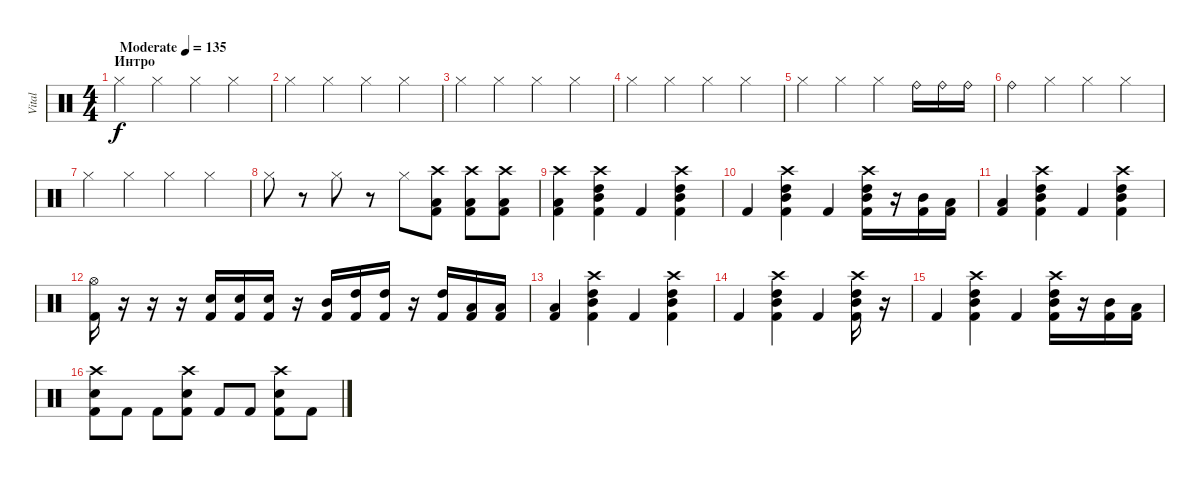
\track ("Vital" "Vital") {instrument percussion}
\staff {score}
\articulation defaults
\ts (4 4)
\section ("" "Интро")
\tempo (135 "Moderate")
\clef neutral
\ks c "Hi-Hat (closed)".4{dy f} "Hi-Hat (closed)".4 "Hi-Hat (closed)".4 "Hi-Hat (closed)".4
|
"Hi-Hat (closed)".4 "Hi-Hat (closed)".4 "Hi-Hat (closed)".4 "Hi-Hat (closed)".4 |
"Hi-Hat (closed)".4 "Hi-Hat (closed)".4 "Hi-Hat (closed)".4 "Hi-Hat (closed)".4 |
"Hi-Hat (closed)".4 "Hi-Hat (closed)".4 "Hi-Hat (closed)".4 "Hi-Hat (closed)".4 |
"Hi-Hat (closed)".4 "Hi-Hat (closed)".4 "Hi-Hat (closed)".4 "Ride (bell)".16 "Ride (bell)".16 "Ride (bell)".16 |
"Ride (bell)".4 "Hi-Hat (closed)".4 "Hi-Hat (closed)".4 "Hi-Hat (closed)".4 |
"Hi-Hat (closed)".4 "Hi-Hat (closed)".4 "Hi-Hat (closed)".4 "Hi-Hat (closed)".4 |
"Hi-Hat (closed)".8 r.8 "Hi-Hat (closed)".8 r.8 "Hi-Hat (closed)".8 ("Crash high (hit)" "Low Tom (hit)" "Kick (hit) 2").8 ("Crash high (hit)" "Low Tom (hit)" "Kick (hit) 2").8 ("Crash high (hit)" "Low Tom (hit)" "Kick (hit) 2").8 |
("Crash high (hit)" "Low Tom (hit)" "Kick (hit) 2").4 ("Crash high (hit)" "Mid Tom (hit)" "High Tom (hit)" "Kick (hit) 2").4 "Kick (hit) 2".4 ("Crash high (hit)" "Mid Tom (hit)" "High Tom (hit)" "Kick (hit) 2").4 |
"Kick (hit) 2".4 ("Crash high (hit)" "Mid Tom (hit)" "High Tom (hit)" "Kick (hit) 2").4 "Kick (hit) 2".4 ("Crash high (hit)" "Mid Tom (hit)" "High Tom (hit)" "Kick (hit) 2").16 r.16 ("Mid Tom (hit)" "Kick (hit) 2").16 ("Low Tom (hit)" "Kick (hit) 2").16 |
("Low Tom (hit)" "Kick (hit) 2").4 ("Crash high (hit)" "Mid Tom (hit)" "High Tom (hit)" "Kick (hit) 2").4 "Kick (hit) 2".4 ("Crash high (hit)" "Mid Tom (hit)" "High Tom (hit)" "Kick (hit) 2").4 |
("Hi-Hat (open)" "Kick (hit) 2").16 r.16 r.16 r.16 ("Snare (hit) 2" "Kick (hit) 2").16 ("Snare (hit) 2" "Kick (hit) 2").16 ("Snare (hit) 2" "Kick (hit) 2").16 r.16 ("Mid Tom (hit)" "Kick (hit) 2").16 ("High Tom (hit)" "Kick (hit) 2").16 ("High Tom (hit)" "Kick (hit) 2").16 r.16 ("High Tom (hit)" "Kick (hit) 2").16 ("Low Tom (hit)" "Kick (hit) 2").16 ("Low Tom (hit)" "Kick (hit) 2").16 |
("Low Tom (hit)" "Kick (hit) 2").4 ("Crash high (hit)" "Mid Tom (hit)" "High Tom (hit)" "Kick (hit) 2").4 "Kick (hit) 2".4 ("Crash high (hit)" "Mid Tom (hit)" "High Tom (hit)" "Kick (hit) 2").4 |
"Kick (hit) 2".4 ("Crash high (hit)" "Mid Tom (hit)" "High Tom (hit)" "Kick (hit) 2").4 "Kick (hit) 2".4 ("Crash high (hit)" "Mid Tom (hit)" "High Tom (hit)" "Kick (hit) 2").16 r.16 |
"Kick (hit) 2".4 ("Crash high (hit)" "Mid Tom (hit)" "High Tom (hit)" "Kick (hit) 2").4 "Kick (hit) 2".4 ("Crash high (hit)" "Mid Tom (hit)" "High Tom (hit)" "Kick (hit) 2").16 r.16 ("Mid Tom (hit)" "Kick (hit) 2").16 ("Low Tom (hit)" "Kick (hit) 2").16 |
("Crash high (hit)" "Snare (hit) 2" "Kick (hit) 2").8 "Kick (hit) 2".8 "Kick (hit) 2".8 ("Crash high (hit)" "Snare (hit) 2" "Kick (hit) 2").8 "Kick (hit) 2".8 "Kick (hit) 2".8 ("Crash high (hit)" "Snare (hit) 2" "Kick (hit) 2").8 "Kick (hit) 2".8
